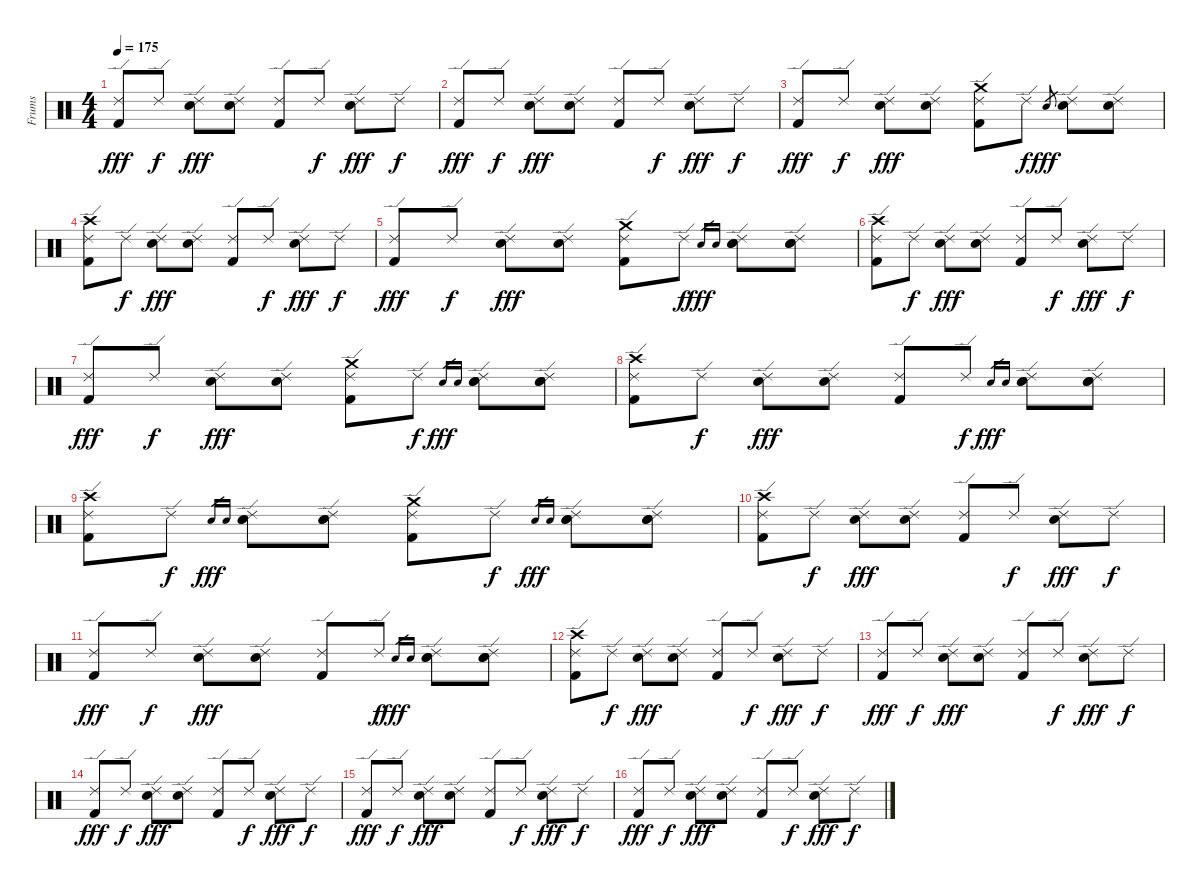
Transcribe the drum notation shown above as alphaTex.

\track ("Frums" "Frums") {instrument percussion}
\staff {score}
\articulation defaults
\ts (4 4)
\tempo 175
\clef neutral
\ks c
("Ride (edge) 2" "Kick (hit) 2").8{dy fff} "Ride (edge) 2".8{dy f} ("Ride (edge) 2" "Electric Snare (hit)").8{dy fff} ("Ride (edge) 2" "Electric Snare (hit)").8 ("Ride (edge) 2" "Kick (hit) 2").8 "Ride (edge) 2".8{dy f} ("Ride (edge) 2" "Electric Snare (hit)").8{dy fff} "Ride (edge) 2".8{dy f} |
("Ride (edge) 2" "Kick (hit) 2").8{dy fff} "Ride (edge) 2".8{dy f} ("Ride (edge) 2" "Electric Snare (hit)").8{dy fff} ("Ride (edge) 2" "Electric Snare (hit)").8 ("Ride (edge) 2" "Kick (hit) 2").8 "Ride (edge) 2".8{dy f} ("Ride (edge) 2" "Electric Snare (hit)").8{dy fff} "Ride (edge) 2".8{dy f} |
("Ride (edge) 2" "Kick (hit) 2").8{dy fff} "Ride (edge) 2".8{dy f} ("Ride (edge) 2" "Electric Snare (hit)").8{dy fff} ("Ride (edge) 2" "Electric Snare (hit)").8 ("Ride (edge) 2" "Kick (hit) 2" "Crash medium (hit)").8 "Ride (edge) 2".8{dy f} "Electric Snare (hit)".8{gr dy fff} ("Ride (edge) 2" "Electric Snare (hit)").8 ("Ride (edge) 2" "Electric Snare (hit)").8 |
("Ride (edge) 2" "Kick (hit) 2" "Crash high (hit)").8 "Ride (edge) 2".8{dy f} ("Ride (edge) 2" "Electric Snare (hit)").8{dy fff} ("Ride (edge) 2" "Electric Snare (hit)").8 ("Ride (edge) 2" "Kick (hit) 2").8 "Ride (edge) 2".8{dy f} ("Ride (edge) 2" "Electric Snare (hit)").8{dy fff} "Ride (edge) 2".8{dy f} |
("Ride (edge) 2" "Kick (hit) 2").8{dy fff} "Ride (edge) 2".8{dy f} ("Ride (edge) 2" "Electric Snare (hit)").8{dy fff} ("Ride (edge) 2" "Electric Snare (hit)").8 ("Ride (edge) 2" "Kick (hit) 2" "Crash medium (hit)").8 "Ride (edge) 2".8{dy f} "Electric Snare (hit)".16{gr dy fff} "Electric Snare (hit)".16{gr} ("Ride (edge) 2" "Electric Snare (hit)" "Electric Snare (hit)").8 ("Ride (edge) 2" "Electric Snare (hit)" "Electric Snare (hit)").8 |
("Ride (edge) 2" "Kick (hit) 2" "Crash high (hit)").8 "Ride (edge) 2".8{dy f} ("Ride (edge) 2" "Electric Snare (hit)").8{dy fff} ("Ride (edge) 2" "Electric Snare (hit)").8 ("Ride (edge) 2" "Kick (hit) 2").8 "Ride (edge) 2".8{dy f} ("Ride (edge) 2" "Electric Snare (hit)").8{dy fff} "Ride (edge) 2".8{dy f} |
("Ride (edge) 2" "Kick (hit) 2").8{dy fff} "Ride (edge) 2".8{dy f} ("Ride (edge) 2" "Electric Snare (hit)").8{dy fff} ("Ride (edge) 2" "Electric Snare (hit)").8 ("Ride (edge) 2" "Kick (hit) 2" "Crash medium (hit)").8 "Ride (edge) 2".8{dy f} "Electric Snare (hit)".16{gr dy fff} "Electric Snare (hit)".16{gr} ("Ride (edge) 2" "Electric Snare (hit)" "Electric Snare (hit)").8 ("Ride (edge) 2" "Electric Snare (hit)" "Electric Snare (hit)").8 |
("Ride (edge) 2" "Kick (hit) 2" "Crash high (hit)").8 "Ride (edge) 2".8{dy f} ("Ride (edge) 2" "Electric Snare (hit)").8{dy fff} ("Ride (edge) 2" "Electric Snare (hit)").8 ("Ride (edge) 2" "Kick (hit) 2").8 "Ride (edge) 2".8{dy f} "Electric Snare (hit)".16{gr dy fff} "Electric Snare (hit)".16{gr} ("Ride (edge) 2" "Electric Snare (hit)" "Electric Snare (hit)").8 ("Ride (edge) 2" "Electric Snare (hit)" "Electric Snare (hit)").8 |
("Ride (edge) 2" "Kick (hit) 2" "Crash high (hit)").8 "Ride (edge) 2".8{dy f} "Electric Snare (hit)".16{gr dy fff} "Electric Snare (hit)".16{gr} ("Ride (edge) 2" "Electric Snare (hit)" "Electric Snare (hit)").8 ("Ride (edge) 2" "Electric Snare (hit)" "Electric Snare (hit)").8 ("Ride (edge) 2" "Kick (hit) 2" "Crash medium (hit)").8 "Ride (edge) 2".8{dy f} "Electric Snare (hit)".16{gr dy fff} "Electric Snare (hit)".16{gr} ("Ride (edge) 2" "Electric Snare (hit)" "Electric Snare (hit)").8 ("Ride (edge) 2" "Electric Snare (hit)" "Electric Snare (hit)").8 |
("Ride (edge) 2" "Kick (hit) 2" "Crash high (hit)").8 "Ride (edge) 2".8{dy f} ("Ride (edge) 2" "Electric Snare (hit)").8{dy fff} ("Ride (edge) 2" "Electric Snare (hit)").8 ("Ride (edge) 2" "Kick (hit) 2").8 "Ride (edge) 2".8{dy f} ("Ride (edge) 2" "Electric Snare (hit)").8{dy fff} "Ride (edge) 2".8{dy f} |
("Ride (edge) 2" "Kick (hit) 2").8{dy fff} "Ride (edge) 2".8{dy f} ("Ride (edge) 2" "Electric Snare (hit)").8{dy fff} ("Ride (edge) 2" "Electric Snare (hit)").8 ("Ride (edge) 2" "Kick (hit) 2").8 "Ride (edge) 2".8{dy f} "Electric Snare (hit)".16{gr dy fff} "Electric Snare (hit)".16{gr} ("Ride (edge) 2" "Electric Snare (hit)" "Electric Snare (hit)").8 ("Ride (edge) 2" "Electric Snare (hit)" "Electric Snare (hit)").8 |
("Ride (edge) 2" "Kick (hit) 2" "Crash high (hit)").8 "Ride (edge) 2".8{dy f} ("Ride (edge) 2" "Electric Snare (hit)").8{dy fff} ("Ride (edge) 2" "Electric Snare (hit)").8 ("Ride (edge) 2" "Kick (hit) 2").8 "Ride (edge) 2".8{dy f} ("Ride (edge) 2" "Electric Snare (hit)").8{dy fff} "Ride (edge) 2".8{dy f} |
("Ride (edge) 2" "Kick (hit) 2").8{dy fff} "Ride (edge) 2".8{dy f} ("Ride (edge) 2" "Electric Snare (hit)").8{dy fff} ("Ride (edge) 2" "Electric Snare (hit)").8 ("Ride (edge) 2" "Kick (hit) 2").8 "Ride (edge) 2".8{dy f} ("Ride (edge) 2" "Electric Snare (hit)").8{dy fff} "Ride (edge) 2".8{dy f} |
("Ride (edge) 2" "Kick (hit) 2").8{dy fff} "Ride (edge) 2".8{dy f} ("Ride (edge) 2" "Electric Snare (hit)").8{dy fff} ("Ride (edge) 2" "Electric Snare (hit)").8 ("Ride (edge) 2" "Kick (hit) 2").8 "Ride (edge) 2".8{dy f} ("Ride (edge) 2" "Electric Snare (hit)").8{dy fff} "Ride (edge) 2".8{dy f} |
("Ride (edge) 2" "Kick (hit) 2").8{dy fff} "Ride (edge) 2".8{dy f} ("Ride (edge) 2" "Electric Snare (hit)").8{dy fff} ("Ride (edge) 2" "Electric Snare (hit)").8 ("Ride (edge) 2" "Kick (hit) 2").8 "Ride (edge) 2".8{dy f} ("Ride (edge) 2" "Electric Snare (hit)").8{dy fff} "Ride (edge) 2".8{dy f} |
("Ride (edge) 2" "Kick (hit) 2").8{dy fff} "Ride (edge) 2".8{dy f} ("Ride (edge) 2" "Electric Snare (hit)").8{dy fff} ("Ride (edge) 2" "Electric Snare (hit)").8 ("Ride (edge) 2" "Kick (hit) 2").8 "Ride (edge) 2".8{dy f} ("Ride (edge) 2" "Electric Snare (hit)").8{dy fff} "Ride (edge) 2".8{dy f}
